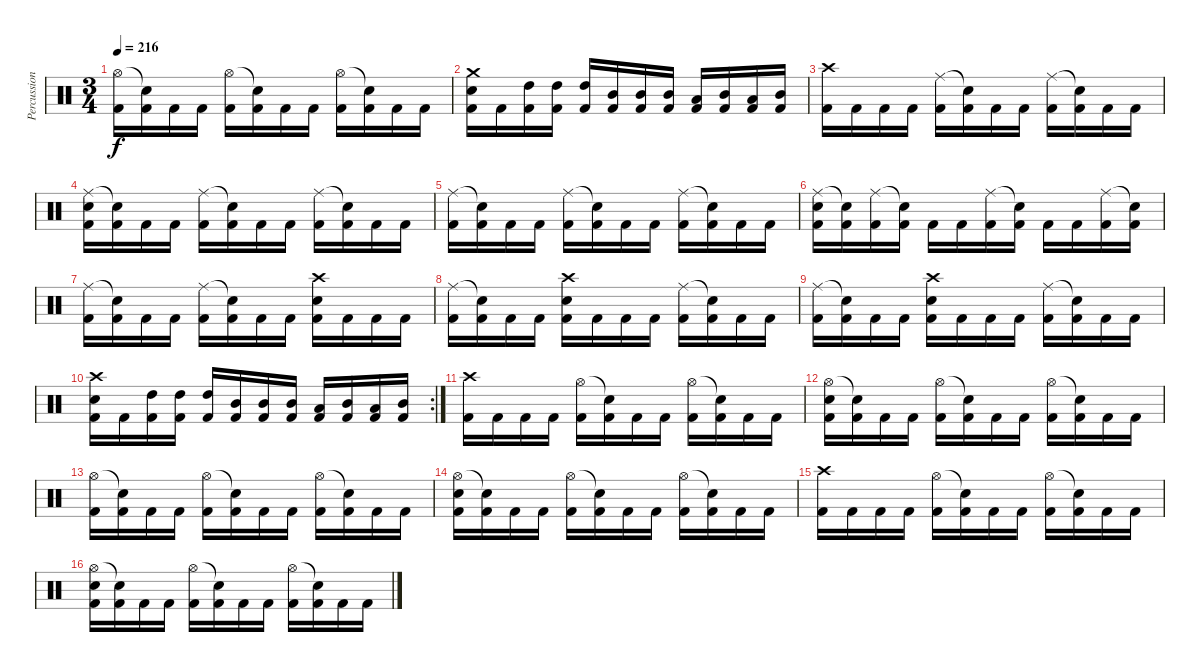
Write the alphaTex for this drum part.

\track ("Percussion" "Percussion") {instrument percussion}
\staff {score}
\articulation defaults
\ts (3 4)
\tempo 216
\clef neutral
\ks c
("Hi-Hat (open)" "Kick (hit) 2").16{dy f} ("Snare (hit)"{t} "Kick (hit) 2").16 "Kick (hit) 2".16 "Kick (hit) 2".16 ("Hi-Hat (open)" "Kick (hit) 2").16 ("Snare (hit)"{t} "Kick (hit) 2").16 "Kick (hit) 2".16 "Kick (hit) 2".16 ("Hi-Hat (open)" "Kick (hit) 2").16 ("Snare (hit)"{t} "Kick (hit) 2").16 "Kick (hit) 2".16 "Kick (hit) 2".16 |
("Crash medium (hit)" "Snare (hit) 2" "Kick (hit) 2").16 "Kick (hit) 2".16 ("High Tom (hit)" "Kick (hit) 2").16 ("High Tom (hit)" "Kick (hit) 2").16 ("High Tom (hit)" "Kick (hit) 2").16 ("Mid Tom (hit)" "Kick (hit) 2").16 ("Mid Tom (hit)" "Kick (hit) 2").16 ("Mid Tom (hit)" "Kick (hit) 2").16 ("Low Tom (hit)" "Kick (hit) 2").16 ("Mid Tom (hit)" "Kick (hit) 2").16 ("Low Tom (hit)" "Kick (hit) 2").16 ("Mid Tom (hit)" "Kick (hit) 2").16 |
("Crash high (hit)" "Kick (hit) 2").16 "Kick (hit) 2".16 "Kick (hit) 2".16 "Kick (hit) 2".16 ("Ride (middle)" "Kick (hit) 2").16 ("Snare (hit)"{t} "Kick (hit) 2").16 "Kick (hit) 2".16 "Kick (hit) 2".16 ("Ride (middle)" "Kick (hit) 2").16 ("Snare (hit)"{t} "Kick (hit) 2").16 "Kick (hit) 2".16 "Kick (hit) 2".16 |
("Ride (middle)" "Snare (hit) 2" "Kick (hit) 2").16 ("Snare (hit)"{t} "Kick (hit) 2").16 "Kick (hit) 2".16 "Kick (hit) 2".16 ("Ride (middle)" "Kick (hit) 2").16 ("Snare (hit)"{t} "Kick (hit) 2").16 "Kick (hit) 2".16 "Kick (hit) 2".16 ("Ride (middle)" "Kick (hit) 2").16 ("Snare (hit)"{t} "Kick (hit) 2").16 "Kick (hit) 2".16 "Kick (hit) 2".16 |
("Ride (middle)" "Kick (hit) 2").16 ("Snare (hit)"{t} "Kick (hit) 2").16 "Kick (hit) 2".16 "Kick (hit) 2".16 ("Ride (middle)" "Kick (hit) 2").16 ("Snare (hit)"{t} "Kick (hit) 2").16 "Kick (hit) 2".16 "Kick (hit) 2".16 ("Ride (middle)" "Kick (hit) 2").16 ("Snare (hit)"{t} "Kick (hit) 2").16 "Kick (hit) 2".16 "Kick (hit) 2".16 |
("Ride (middle)" "Snare (hit) 2" "Kick (hit) 2").16 ("Snare (hit)"{t} "Kick (hit) 2").16 ("Ride (middle)" "Kick (hit) 2").16 ("Snare (hit)"{t} "Kick (hit) 2").16 "Kick (hit) 2".16 "Kick (hit) 2".16 ("Ride (middle)" "Kick (hit) 2").16 ("Snare (hit)"{t} "Kick (hit) 2").16 "Kick (hit) 2".16 "Kick (hit) 2".16 ("Ride (middle)" "Kick (hit) 2").16 ("Snare (hit)"{t} "Kick (hit) 2").16 |
("Ride (middle)" "Kick (hit) 2").16 ("Snare (hit)"{t} "Kick (hit) 2").16 "Kick (hit) 2".16 "Kick (hit) 2".16 ("Ride (middle)" "Kick (hit) 2").16 ("Snare (hit)"{t} "Kick (hit) 2").16 "Kick (hit) 2".16 "Kick (hit) 2".16 ("Crash high (hit)" "Snare (hit) 2" "Kick (hit) 2").16 "Kick (hit) 2".16 "Kick (hit) 2".16 "Kick (hit) 2".16 |
("Ride (middle)" "Kick (hit) 2").16 ("Snare (hit)"{t} "Kick (hit) 2").16 "Kick (hit) 2".16 "Kick (hit) 2".16 ("Crash high (hit)" "Snare (hit) 2" "Kick (hit) 2").16 "Kick (hit) 2".16 "Kick (hit) 2".16 "Kick (hit) 2".16 ("Ride (middle)" "Kick (hit) 2").16 ("Snare (hit)"{t} "Kick (hit) 2").16 "Kick (hit) 2".16 "Kick (hit) 2".16 |
("Ride (middle)" "Kick (hit) 2").16 ("Snare (hit)"{t} "Kick (hit) 2").16 "Kick (hit) 2".16 "Kick (hit) 2".16 ("Crash high (hit)" "Snare (hit) 2" "Kick (hit) 2").16 "Kick (hit) 2".16 "Kick (hit) 2".16 "Kick (hit) 2".16 ("Ride (middle)" "Kick (hit) 2").16 ("Snare (hit)"{t} "Kick (hit) 2").16 "Kick (hit) 2".16 "Kick (hit) 2".16 |
\rc 2
("Crash high (hit)" "Snare (hit) 2" "Kick (hit) 2").16 "Kick (hit) 2".16 ("High Tom (hit)" "Kick (hit) 2").16 ("High Tom (hit)" "Kick (hit) 2").16 ("High Tom (hit)" "Kick (hit) 2").16 ("Mid Tom (hit)" "Kick (hit) 2").16 ("Mid Tom (hit)" "Kick (hit) 2").16 ("Mid Tom (hit)" "Kick (hit) 2").16 ("Low Tom (hit)" "Kick (hit) 2").16 ("Mid Tom (hit)" "Kick (hit) 2").16 ("Low Tom (hit)" "Kick (hit) 2").16 ("Mid Tom (hit)" "Kick (hit) 2").16 |
("Crash high (hit)" "Kick (hit) 2").16 "Kick (hit) 2".16 "Kick (hit) 2".16 "Kick (hit) 2".16 ("Hi-Hat (open)" "Kick (hit) 2").16 ("Snare (hit)"{t} "Kick (hit) 2").16 "Kick (hit) 2".16 "Kick (hit) 2".16 ("Hi-Hat (open)" "Kick (hit) 2").16 ("Snare (hit)"{t} "Kick (hit) 2").16 "Kick (hit) 2".16 "Kick (hit) 2".16 |
("Hi-Hat (open)" "Snare (hit) 2" "Kick (hit) 2").16 ("Snare (hit)"{t} "Kick (hit) 2").16 "Kick (hit) 2".16 "Kick (hit) 2".16 ("Hi-Hat (open)" "Kick (hit) 2").16 ("Snare (hit)"{t} "Kick (hit) 2").16 "Kick (hit) 2".16 "Kick (hit) 2".16 ("Hi-Hat (open)" "Kick (hit) 2").16 ("Snare (hit)"{t} "Kick (hit) 2").16 "Kick (hit) 2".16 "Kick (hit) 2".16 |
("Hi-Hat (open)" "Kick (hit) 2").16 ("Snare (hit)"{t} "Kick (hit) 2").16 "Kick (hit) 2".16 "Kick (hit) 2".16 ("Hi-Hat (open)" "Kick (hit) 2").16 ("Snare (hit)"{t} "Kick (hit) 2").16 "Kick (hit) 2".16 "Kick (hit) 2".16 ("Hi-Hat (open)" "Kick (hit) 2").16 ("Snare (hit)"{t} "Kick (hit) 2").16 "Kick (hit) 2".16 "Kick (hit) 2".16 |
("Hi-Hat (open)" "Snare (hit) 2" "Kick (hit) 2").16 ("Snare (hit)"{t} "Kick (hit) 2").16 "Kick (hit) 2".16 "Kick (hit) 2".16 ("Hi-Hat (open)" "Kick (hit) 2").16 ("Snare (hit)"{t} "Kick (hit) 2").16 "Kick (hit) 2".16 "Kick (hit) 2".16 ("Hi-Hat (open)" "Kick (hit) 2").16 ("Snare (hit)"{t} "Kick (hit) 2").16 "Kick (hit) 2".16 "Kick (hit) 2".16 |
("Crash high (hit)" "Kick (hit) 2").16 "Kick (hit) 2".16 "Kick (hit) 2".16 "Kick (hit) 2".16 ("Hi-Hat (open)" "Kick (hit) 2").16 ("Snare (hit)"{t} "Kick (hit) 2").16 "Kick (hit) 2".16 "Kick (hit) 2".16 ("Hi-Hat (open)" "Kick (hit) 2").16 ("Snare (hit)"{t} "Kick (hit) 2").16 "Kick (hit) 2".16 "Kick (hit) 2".16 |
("Hi-Hat (open)" "Snare (hit) 2" "Kick (hit) 2").16 ("Snare (hit)"{t} "Kick (hit) 2").16 "Kick (hit) 2".16 "Kick (hit) 2".16 ("Hi-Hat (open)" "Kick (hit) 2").16 ("Snare (hit)"{t} "Kick (hit) 2").16 "Kick (hit) 2".16 "Kick (hit) 2".16 ("Hi-Hat (open)" "Kick (hit) 2").16 ("Snare (hit)"{t} "Kick (hit) 2").16 "Kick (hit) 2".16 "Kick (hit) 2".16
